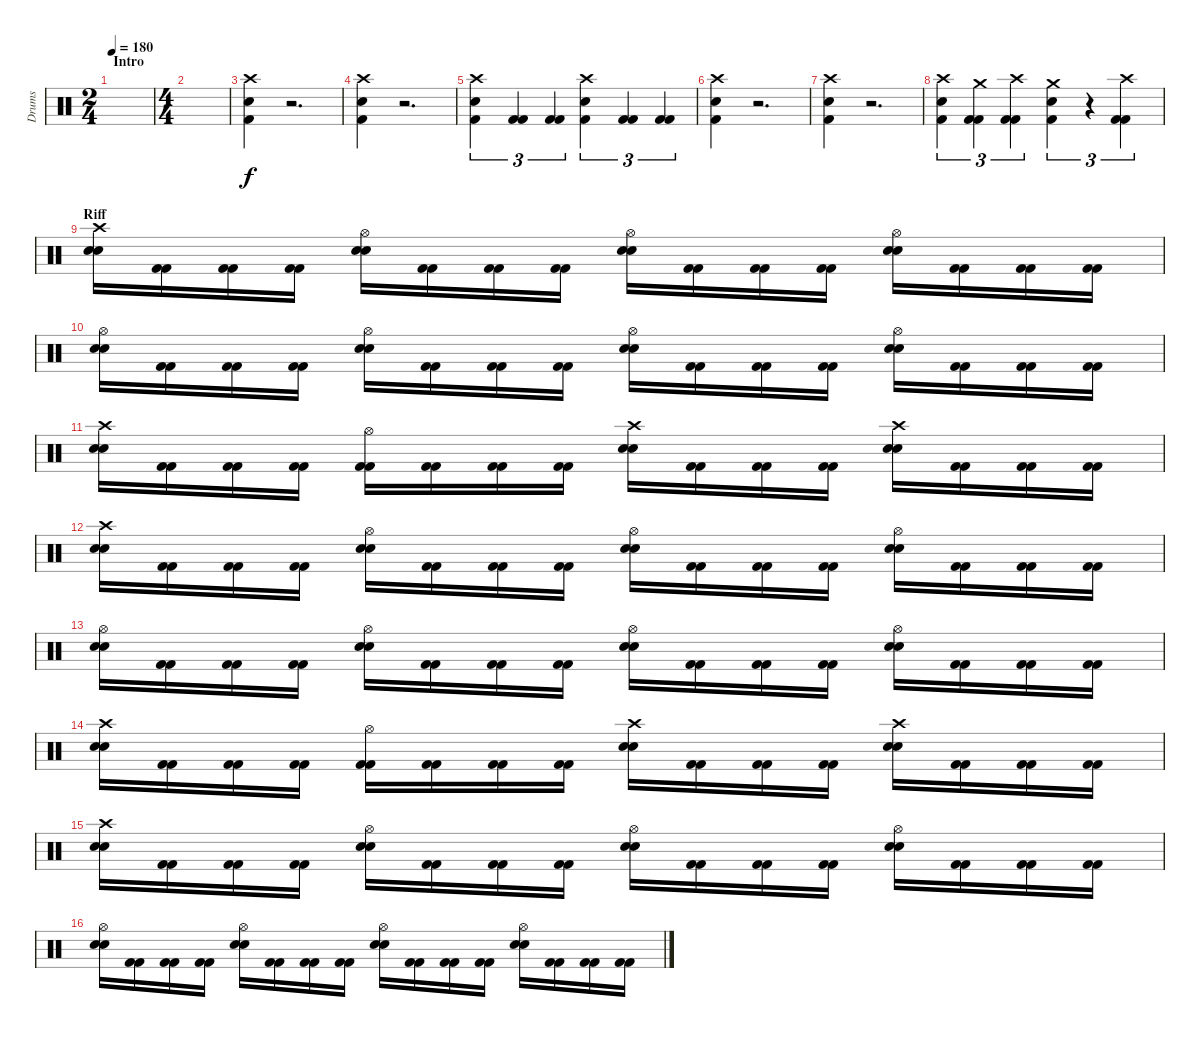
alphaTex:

\track ("Drums" "Drums") {instrument percussion}
\staff {score}
\articulation defaults
\ts (2 4)
\section ("" "Intro")
\tempo 180
\clef neutral
\ks c
|
\ts (4 4)
|
("Crash high (hit)" "Snare (hit) 2" "Kick (hit) 2").4 r.2{d} |
("Crash high (hit)" "Snare (hit) 2" "Kick (hit) 2").4 r.2{d} |
("Crash high (hit)" "Snare (hit) 2" "Kick (hit) 2").4{tu (3 2)} ("Kick (hit) 2" "Kick (hit) 2").4{tu (3 2)} ("Kick (hit) 2" "Kick (hit) 2").4{tu (3 2)} ("Crash high (hit)" "Snare (hit) 2" "Kick (hit) 2").4{tu (3 2)} ("Kick (hit) 2" "Kick (hit) 2").4{tu (3 2)} ("Kick (hit) 2" "Kick (hit) 2").4{tu (3 2)} |
("Crash high (hit)" "Snare (hit) 2" "Kick (hit) 2").4 r.2{d} |
("Crash high (hit)" "Snare (hit) 2" "Kick (hit) 2").4 r.2{d} |
("Crash high (hit)" "Snare (hit) 2" "Kick (hit) 2").4{tu (3 2)} ("Crash medium (hit)" "Kick (hit) 2" "Kick (hit) 2").4{tu (3 2)} ("Crash high (hit)" "Kick (hit) 2" "Kick (hit) 2").4{tu (3 2)} ("Crash medium (hit)" "Snare (hit) 2" "Kick (hit) 2").4{tu (3 2)} r.4{tu (3 2)} ("Crash high (hit)" "Kick (hit) 2" "Kick (hit) 2").4{tu (3 2)} |
\section ("" "Riff")
("Crash high (hit)" "Snare (hit) 2" "Snare (hit) 2").16 ("Kick (hit) 2" "Kick (hit) 2").16 ("Kick (hit) 2" "Kick (hit) 2").16 ("Kick (hit) 2" "Kick (hit) 2").16 ("Hi-Hat (open)" "Snare (hit) 2" "Snare (hit) 2").16 ("Kick (hit) 2" "Kick (hit) 2").16 ("Kick (hit) 2" "Kick (hit) 2").16 ("Kick (hit) 2" "Kick (hit) 2").16 ("Hi-Hat (open)" "Snare (hit) 2" "Snare (hit) 2").16 ("Kick (hit) 2" "Kick (hit) 2").16 ("Kick (hit) 2" "Kick (hit) 2").16 ("Kick (hit) 2" "Kick (hit) 2").16 ("Hi-Hat (open)" "Snare (hit) 2" "Snare (hit) 2").16 ("Kick (hit) 2" "Kick (hit) 2").16 ("Kick (hit) 2" "Kick (hit) 2").16 ("Kick (hit) 2" "Kick (hit) 2").16 |
("Hi-Hat (open)" "Snare (hit) 2" "Snare (hit) 2").16 ("Kick (hit) 2" "Kick (hit) 2").16 ("Kick (hit) 2" "Kick (hit) 2").16 ("Kick (hit) 2" "Kick (hit) 2").16 ("Hi-Hat (open)" "Snare (hit) 2" "Snare (hit) 2").16 ("Kick (hit) 2" "Kick (hit) 2").16 ("Kick (hit) 2" "Kick (hit) 2").16 ("Kick (hit) 2" "Kick (hit) 2").16 ("Hi-Hat (open)" "Snare (hit) 2" "Snare (hit) 2").16 ("Kick (hit) 2" "Kick (hit) 2").16 ("Kick (hit) 2" "Kick (hit) 2").16 ("Kick (hit) 2" "Kick (hit) 2").16 ("Hi-Hat (open)" "Snare (hit) 2" "Snare (hit) 2").16 ("Kick (hit) 2" "Kick (hit) 2").16 ("Kick (hit) 2" "Kick (hit) 2").16 ("Kick (hit) 2" "Kick (hit) 2").16 |
("Crash high (hit)" "Snare (hit) 2" "Snare (hit) 2").16 ("Kick (hit) 2" "Kick (hit) 2").16 ("Kick (hit) 2" "Kick (hit) 2").16 ("Kick (hit) 2" "Kick (hit) 2").16 ("Hi-Hat (open)" "Kick (hit) 2" "Kick (hit) 2").16 ("Kick (hit) 2" "Kick (hit) 2").16 ("Kick (hit) 2" "Kick (hit) 2").16 ("Kick (hit) 2" "Kick (hit) 2").16 ("Crash high (hit)" "Snare (hit) 2" "Snare (hit) 2").16 ("Kick (hit) 2" "Kick (hit) 2").16 ("Kick (hit) 2" "Kick (hit) 2").16 ("Kick (hit) 2" "Kick (hit) 2").16 ("Crash high (hit)" "Snare (hit) 2" "Snare (hit) 2").16 ("Kick (hit) 2" "Kick (hit) 2").16 ("Kick (hit) 2" "Kick (hit) 2").16 ("Kick (hit) 2" "Kick (hit) 2").16 |
("Crash high (hit)" "Snare (hit) 2" "Snare (hit) 2").16 ("Kick (hit) 2" "Kick (hit) 2").16 ("Kick (hit) 2" "Kick (hit) 2").16 ("Kick (hit) 2" "Kick (hit) 2").16 ("Hi-Hat (open)" "Snare (hit) 2" "Snare (hit) 2").16 ("Kick (hit) 2" "Kick (hit) 2").16 ("Kick (hit) 2" "Kick (hit) 2").16 ("Kick (hit) 2" "Kick (hit) 2").16 ("Hi-Hat (open)" "Snare (hit) 2" "Snare (hit) 2").16 ("Kick (hit) 2" "Kick (hit) 2").16 ("Kick (hit) 2" "Kick (hit) 2").16 ("Kick (hit) 2" "Kick (hit) 2").16 ("Hi-Hat (open)" "Snare (hit) 2" "Snare (hit) 2").16 ("Kick (hit) 2" "Kick (hit) 2").16 ("Kick (hit) 2" "Kick (hit) 2").16 ("Kick (hit) 2" "Kick (hit) 2").16 |
("Hi-Hat (open)" "Snare (hit) 2" "Snare (hit) 2").16 ("Kick (hit) 2" "Kick (hit) 2").16 ("Kick (hit) 2" "Kick (hit) 2").16 ("Kick (hit) 2" "Kick (hit) 2").16 ("Hi-Hat (open)" "Snare (hit) 2" "Snare (hit) 2").16 ("Kick (hit) 2" "Kick (hit) 2").16 ("Kick (hit) 2" "Kick (hit) 2").16 ("Kick (hit) 2" "Kick (hit) 2").16 ("Hi-Hat (open)" "Snare (hit) 2" "Snare (hit) 2").16 ("Kick (hit) 2" "Kick (hit) 2").16 ("Kick (hit) 2" "Kick (hit) 2").16 ("Kick (hit) 2" "Kick (hit) 2").16 ("Hi-Hat (open)" "Snare (hit) 2" "Snare (hit) 2").16 ("Kick (hit) 2" "Kick (hit) 2").16 ("Kick (hit) 2" "Kick (hit) 2").16 ("Kick (hit) 2" "Kick (hit) 2").16 |
("Crash high (hit)" "Snare (hit) 2" "Snare (hit) 2").16 ("Kick (hit) 2" "Kick (hit) 2").16 ("Kick (hit) 2" "Kick (hit) 2").16 ("Kick (hit) 2" "Kick (hit) 2").16 ("Hi-Hat (open)" "Kick (hit) 2" "Kick (hit) 2").16 ("Kick (hit) 2" "Kick (hit) 2").16 ("Kick (hit) 2" "Kick (hit) 2").16 ("Kick (hit) 2" "Kick (hit) 2").16 ("Crash high (hit)" "Snare (hit) 2" "Snare (hit) 2").16 ("Kick (hit) 2" "Kick (hit) 2").16 ("Kick (hit) 2" "Kick (hit) 2").16 ("Kick (hit) 2" "Kick (hit) 2").16 ("Crash high (hit)" "Snare (hit) 2" "Snare (hit) 2").16 ("Kick (hit) 2" "Kick (hit) 2").16 ("Kick (hit) 2" "Kick (hit) 2").16 ("Kick (hit) 2" "Kick (hit) 2").16 |
("Crash high (hit)" "Snare (hit) 2" "Snare (hit) 2").16 ("Kick (hit) 2" "Kick (hit) 2").16 ("Kick (hit) 2" "Kick (hit) 2").16 ("Kick (hit) 2" "Kick (hit) 2").16 ("Hi-Hat (open)" "Snare (hit) 2" "Snare (hit) 2").16 ("Kick (hit) 2" "Kick (hit) 2").16 ("Kick (hit) 2" "Kick (hit) 2").16 ("Kick (hit) 2" "Kick (hit) 2").16 ("Hi-Hat (open)" "Snare (hit) 2" "Snare (hit) 2").16 ("Kick (hit) 2" "Kick (hit) 2").16 ("Kick (hit) 2" "Kick (hit) 2").16 ("Kick (hit) 2" "Kick (hit) 2").16 ("Hi-Hat (open)" "Snare (hit) 2" "Snare (hit) 2").16 ("Kick (hit) 2" "Kick (hit) 2").16 ("Kick (hit) 2" "Kick (hit) 2").16 ("Kick (hit) 2" "Kick (hit) 2").16 |
("Hi-Hat (open)" "Snare (hit) 2" "Snare (hit) 2").16 ("Kick (hit) 2" "Kick (hit) 2").16 ("Kick (hit) 2" "Kick (hit) 2").16 ("Kick (hit) 2" "Kick (hit) 2").16 ("Hi-Hat (open)" "Snare (hit) 2" "Snare (hit) 2").16 ("Kick (hit) 2" "Kick (hit) 2").16 ("Kick (hit) 2" "Kick (hit) 2").16 ("Kick (hit) 2" "Kick (hit) 2").16 ("Hi-Hat (open)" "Snare (hit) 2" "Snare (hit) 2").16 ("Kick (hit) 2" "Kick (hit) 2").16 ("Kick (hit) 2" "Kick (hit) 2").16 ("Kick (hit) 2" "Kick (hit) 2").16 ("Hi-Hat (open)" "Snare (hit) 2" "Snare (hit) 2").16 ("Kick (hit) 2" "Kick (hit) 2").16 ("Kick (hit) 2" "Kick (hit) 2").16 ("Kick (hit) 2" "Kick (hit) 2").16
